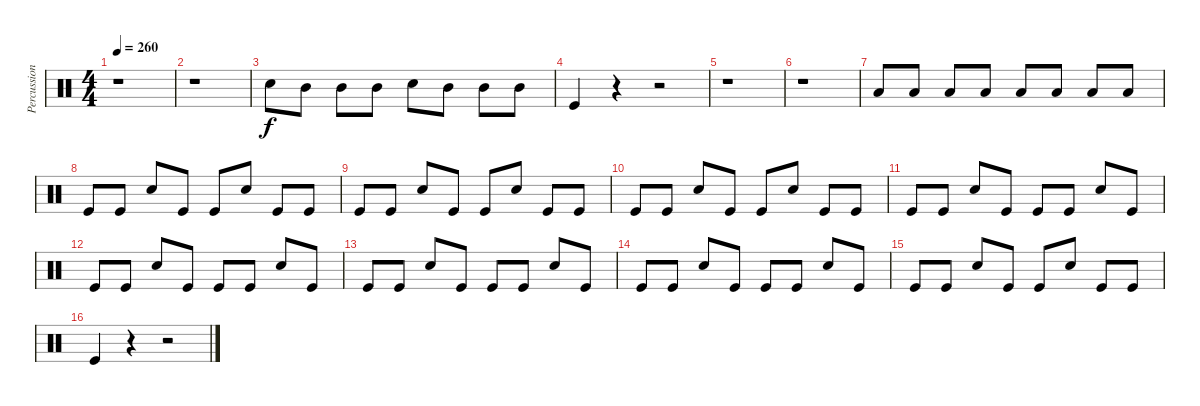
\track ("Percussion" "Percussion") {instrument percussion}
\staff {score}
\articulation defaults
\ts (4 4)
\tempo 260
\clef neutral
\ks c
r.1{dy f} |
r.1 |
"Snare (hit) 2".8 "Mid Tom (hit)".8 "Mid Tom (hit)".8 "Mid Tom (hit)".8 "Snare (hit) 2".8 "Mid Tom (hit)".8 "Mid Tom (hit)".8 "Mid Tom (hit)".8 |
"Kick (hit)".4 r.4 r.2 |
r.1 |
r.1 |
"Low Tom (hit)".8 "Low Tom (hit)".8 "Low Tom (hit)".8 "Low Tom (hit)".8 "Low Tom (hit)".8 "Low Tom (hit)".8 "Low Tom (hit)".8 "Low Tom (hit)".8 |
"Kick (hit)".8 "Kick (hit)".8 "Snare (hit) 2".8 "Kick (hit)".8 "Kick (hit)".8 "Snare (hit) 2".8 "Kick (hit)".8 "Kick (hit)".8 |
"Kick (hit)".8 "Kick (hit)".8 "Snare (hit) 2".8 "Kick (hit)".8 "Kick (hit)".8 "Snare (hit) 2".8 "Kick (hit)".8 "Kick (hit)".8 |
"Kick (hit)".8 "Kick (hit)".8 "Snare (hit) 2".8 "Kick (hit)".8 "Kick (hit)".8 "Snare (hit) 2".8 "Kick (hit)".8 "Kick (hit)".8 |
"Kick (hit)".8 "Kick (hit)".8 "Snare (hit) 2".8 "Kick (hit)".8 "Kick (hit)".8 "Kick (hit)".8 "Snare (hit) 2".8 "Kick (hit)".8 |
"Kick (hit)".8 "Kick (hit)".8 "Snare (hit) 2".8 "Kick (hit)".8 "Kick (hit)".8 "Kick (hit)".8 "Snare (hit) 2".8 "Kick (hit)".8 |
"Kick (hit)".8 "Kick (hit)".8 "Snare (hit) 2".8 "Kick (hit)".8 "Kick (hit)".8 "Kick (hit)".8 "Snare (hit) 2".8 "Kick (hit)".8 |
"Kick (hit)".8 "Kick (hit)".8 "Snare (hit) 2".8 "Kick (hit)".8 "Kick (hit)".8 "Kick (hit)".8 "Snare (hit) 2".8 "Kick (hit)".8 |
"Kick (hit)".8 "Kick (hit)".8 "Snare (hit) 2".8 "Kick (hit)".8 "Kick (hit)".8 "Snare (hit) 2".8 "Kick (hit)".8 "Kick (hit)".8 |
"Kick (hit)".4 r.4 r.2
